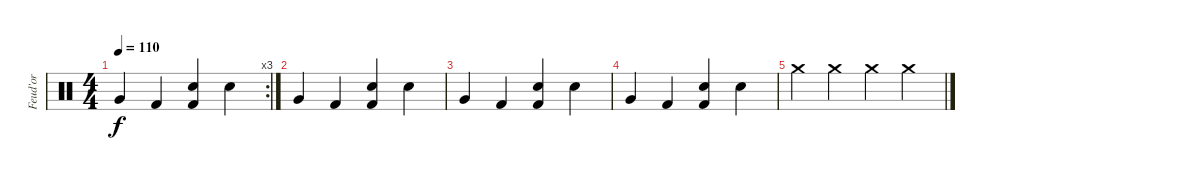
\track ("Feud'or" "Feud'or") {instrument percussion}
\staff {score}
\articulation defaults
\rc 3
\ts (4 4)
\tempo 110
\clef neutral
\ks c "Very Low Tom (hit)".4{dy f} "Kick (hit) 2".4
("Kick (hit) 2" "Electric Snare (hit)").4 "Snare (hit) 2".4 |
"Very Low Tom (hit)".4 "Kick (hit) 2".4 ("Kick (hit) 2" "Electric Snare (hit)").4 "Snare (hit) 2".4 |
"Very Low Tom (hit)".4 "Kick (hit) 2".4 ("Kick (hit) 2" "Electric Snare (hit)").4 "Snare (hit) 2".4 |
"Very Low Tom (hit)".4 "Kick (hit) 2".4 ("Kick (hit) 2" "Electric Snare (hit)").4 "Snare (hit) 2".4 |
"Crash medium (hit)".4 "Crash medium (hit)".4 "Crash medium (hit)".4 "Crash medium (hit)".4
